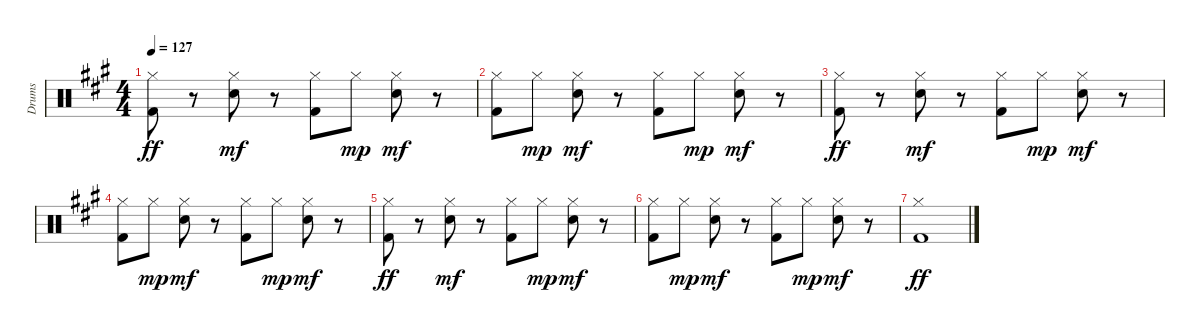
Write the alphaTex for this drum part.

\track ("Drums" "Drums") {instrument percussion}
\staff {score}
\articulation defaults
\ts (4 4)
\tempo 127
\clef neutral
\ks a
("Hi-Hat (closed)" "Kick (hit) 2").8{dy ff} r.8 ("Hi-Hat (closed)" "Snare (hit) 2").8{dy mf} r.8 ("Hi-Hat (closed)" "Kick (hit) 2").8 "Hi-Hat (closed)".8{dy mp} ("Hi-Hat (closed)" "Snare (hit) 2").8{dy mf} r.8 |
("Hi-Hat (closed)" "Kick (hit) 2").8 "Hi-Hat (closed)".8{dy mp} ("Hi-Hat (closed)" "Snare (hit) 2").8{dy mf} r.8 ("Hi-Hat (closed)" "Kick (hit) 2").8 "Hi-Hat (closed)".8{dy mp} ("Hi-Hat (closed)" "Snare (hit) 2").8{dy mf} r.8 |
("Hi-Hat (closed)" "Kick (hit) 2").8{dy ff} r.8 ("Hi-Hat (closed)" "Snare (hit) 2").8{dy mf} r.8 ("Hi-Hat (closed)" "Kick (hit) 2").8 "Hi-Hat (closed)".8{dy mp} ("Hi-Hat (closed)" "Snare (hit) 2").8{dy mf} r.8 |
("Hi-Hat (closed)" "Kick (hit) 2").8 "Hi-Hat (closed)".8{dy mp} ("Hi-Hat (closed)" "Snare (hit) 2").8{dy mf} r.8 ("Hi-Hat (closed)" "Kick (hit) 2").8 "Hi-Hat (closed)".8{dy mp} ("Hi-Hat (closed)" "Snare (hit) 2").8{dy mf} r.8 |
("Hi-Hat (closed)" "Kick (hit) 2").8{dy ff} r.8 ("Hi-Hat (closed)" "Snare (hit) 2").8{dy mf} r.8 ("Hi-Hat (closed)" "Kick (hit) 2").8 "Hi-Hat (closed)".8{dy mp} ("Hi-Hat (closed)" "Snare (hit) 2").8{dy mf} r.8 |
("Hi-Hat (closed)" "Kick (hit) 2").8 "Hi-Hat (closed)".8{dy mp} ("Hi-Hat (closed)" "Snare (hit) 2").8{dy mf} r.8 ("Hi-Hat (closed)" "Kick (hit) 2").8 "Hi-Hat (closed)".8{dy mp} ("Hi-Hat (closed)" "Snare (hit) 2").8{dy mf} r.8 |
("Hi-Hat (closed)" "Kick (hit) 2").1{dy ff}
